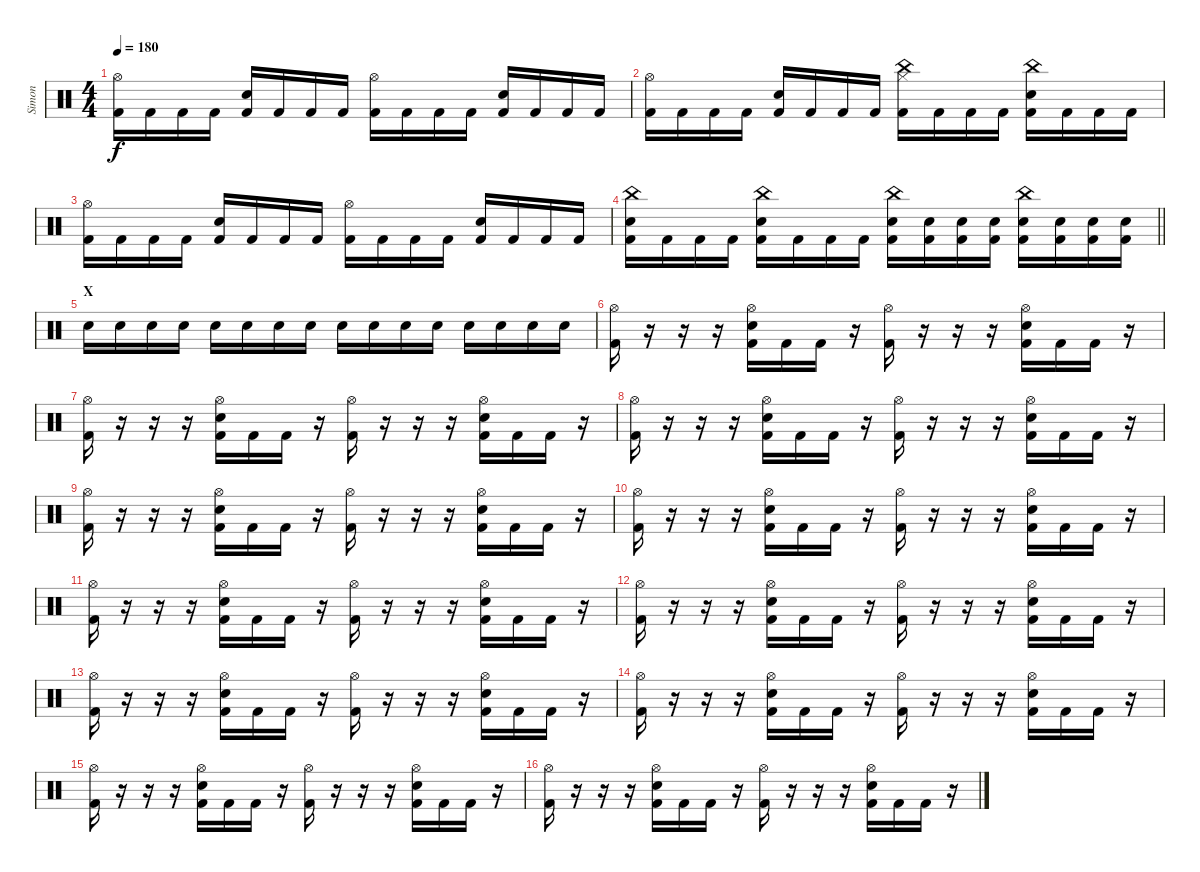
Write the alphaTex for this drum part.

\track ("Simon" "Simon") {instrument percussion}
\staff {score}
\articulation defaults
\ts (4 4)
\tempo 180
\clef neutral
\ks c
("Hi-Hat (open)" "Kick (hit) 2").16{dy f} "Kick (hit) 2".16 "Kick (hit) 2".16 "Kick (hit) 2".16 ("Electric Snare (hit)" "Kick (hit) 2").16 "Kick (hit) 2".16 "Kick (hit) 2".16 "Kick (hit) 2".16 ("Hi-Hat (open)" "Kick (hit) 2").16 "Kick (hit) 2".16 "Kick (hit) 2".16 "Kick (hit) 2".16 ("Electric Snare (hit)" "Kick (hit) 2").16 "Kick (hit) 2".16 "Kick (hit) 2".16 "Kick (hit) 2".16 |
("Hi-Hat (open)" "Kick (hit) 2").16 "Kick (hit) 2".16 "Kick (hit) 2".16 "Kick (hit) 2".16 ("Electric Snare (hit)" "Kick (hit) 2").16 "Kick (hit) 2".16 "Kick (hit) 2".16 "Kick (hit) 2".16 ("China (hit)" "Hi-Hat (closed)" "Kick (hit) 2").16 "Kick (hit) 2".16 "Kick (hit) 2".16 "Kick (hit) 2".16 ("China (hit)" "Electric Snare (hit)" "Kick (hit) 2").16 "Kick (hit) 2".16 "Kick (hit) 2".16 "Kick (hit) 2".16 |
("Hi-Hat (open)" "Kick (hit) 2").16 "Kick (hit) 2".16 "Kick (hit) 2".16 "Kick (hit) 2".16 ("Electric Snare (hit)" "Kick (hit) 2").16 "Kick (hit) 2".16 "Kick (hit) 2".16 "Kick (hit) 2".16 ("Hi-Hat (open)" "Kick (hit) 2").16 "Kick (hit) 2".16 "Kick (hit) 2".16 "Kick (hit) 2".16 ("Electric Snare (hit)" "Kick (hit) 2").16 "Kick (hit) 2".16 "Kick (hit) 2".16 "Kick (hit) 2".16 |
\barLineRight lightlight
("China (hit)" "Electric Snare (hit)" "Kick (hit) 2").16 "Kick (hit) 2".16 "Kick (hit) 2".16 "Kick (hit) 2".16 ("China (hit)" "Electric Snare (hit)" "Kick (hit) 2").16 "Kick (hit) 2".16 "Kick (hit) 2".16 "Kick (hit) 2".16 ("China (hit)" "Electric Snare (hit)" "Kick (hit) 2").16 ("Electric Snare (hit)" "Kick (hit) 2").16 ("Electric Snare (hit)" "Kick (hit) 2").16 ("Electric Snare (hit)" "Kick (hit) 2").16 ("China (hit)" "Electric Snare (hit)" "Kick (hit) 2").16 ("Electric Snare (hit)" "Kick (hit) 2").16 ("Electric Snare (hit)" "Kick (hit) 2").16 ("Electric Snare (hit)" "Kick (hit) 2").16 |
\section ("" "X")
"Electric Snare (hit)".16 "Electric Snare (hit)".16 "Electric Snare (hit)".16 "Electric Snare (hit)".16 "Electric Snare (hit)".16 "Electric Snare (hit)".16 "Electric Snare (hit)".16 "Electric Snare (hit)".16 "Electric Snare (hit)".16 "Electric Snare (hit)".16 "Electric Snare (hit)".16 "Electric Snare (hit)".16 "Electric Snare (hit)".16 "Electric Snare (hit)".16 "Electric Snare (hit)".16 "Electric Snare (hit)".16 |
("Hi-Hat (open)" "Kick (hit) 2").16 r.16 r.16 r.16 ("Hi-Hat (open)" "Electric Snare (hit)" "Kick (hit) 2").16 "Kick (hit) 2".16 "Kick (hit) 2".16 r.16 ("Hi-Hat (open)" "Kick (hit) 2").16 r.16 r.16 r.16 ("Hi-Hat (open)" "Electric Snare (hit)" "Kick (hit) 2").16 "Kick (hit) 2".16 "Kick (hit) 2".16 r.16 |
("Hi-Hat (open)" "Kick (hit) 2").16 r.16 r.16 r.16 ("Hi-Hat (open)" "Electric Snare (hit)" "Kick (hit) 2").16 "Kick (hit) 2".16 "Kick (hit) 2".16 r.16 ("Hi-Hat (open)" "Kick (hit) 2").16 r.16 r.16 r.16 ("Hi-Hat (open)" "Electric Snare (hit)" "Kick (hit) 2").16 "Kick (hit) 2".16 "Kick (hit) 2".16 r.16 |
("Hi-Hat (open)" "Kick (hit) 2").16 r.16 r.16 r.16 ("Hi-Hat (open)" "Electric Snare (hit)" "Kick (hit) 2").16 "Kick (hit) 2".16 "Kick (hit) 2".16 r.16 ("Hi-Hat (open)" "Kick (hit) 2").16 r.16 r.16 r.16 ("Hi-Hat (open)" "Electric Snare (hit)" "Kick (hit) 2").16 "Kick (hit) 2".16 "Kick (hit) 2".16 r.16 |
("Hi-Hat (open)" "Kick (hit) 2").16 r.16 r.16 r.16 ("Hi-Hat (open)" "Electric Snare (hit)" "Kick (hit) 2").16 "Kick (hit) 2".16 "Kick (hit) 2".16 r.16 ("Hi-Hat (open)" "Kick (hit) 2").16 r.16 r.16 r.16 ("Hi-Hat (open)" "Electric Snare (hit)" "Kick (hit) 2").16 "Kick (hit) 2".16 "Kick (hit) 2".16 r.16 |
("Hi-Hat (open)" "Kick (hit) 2").16 r.16 r.16 r.16 ("Hi-Hat (open)" "Electric Snare (hit)" "Kick (hit) 2").16 "Kick (hit) 2".16 "Kick (hit) 2".16 r.16 ("Hi-Hat (open)" "Kick (hit) 2").16 r.16 r.16 r.16 ("Hi-Hat (open)" "Electric Snare (hit)" "Kick (hit) 2").16 "Kick (hit) 2".16 "Kick (hit) 2".16 r.16 |
("Hi-Hat (open)" "Kick (hit) 2").16 r.16 r.16 r.16 ("Hi-Hat (open)" "Electric Snare (hit)" "Kick (hit) 2").16 "Kick (hit) 2".16 "Kick (hit) 2".16 r.16 ("Hi-Hat (open)" "Kick (hit) 2").16 r.16 r.16 r.16 ("Hi-Hat (open)" "Electric Snare (hit)" "Kick (hit) 2").16 "Kick (hit) 2".16 "Kick (hit) 2".16 r.16 |
("Hi-Hat (open)" "Kick (hit) 2").16 r.16 r.16 r.16 ("Hi-Hat (open)" "Electric Snare (hit)" "Kick (hit) 2").16 "Kick (hit) 2".16 "Kick (hit) 2".16 r.16 ("Hi-Hat (open)" "Kick (hit) 2").16 r.16 r.16 r.16 ("Hi-Hat (open)" "Electric Snare (hit)" "Kick (hit) 2").16 "Kick (hit) 2".16 "Kick (hit) 2".16 r.16 |
("Hi-Hat (open)" "Kick (hit) 2").16 r.16 r.16 r.16 ("Hi-Hat (open)" "Electric Snare (hit)" "Kick (hit) 2").16 "Kick (hit) 2".16 "Kick (hit) 2".16 r.16 ("Hi-Hat (open)" "Kick (hit) 2").16 r.16 r.16 r.16 ("Hi-Hat (open)" "Electric Snare (hit)" "Kick (hit) 2").16 "Kick (hit) 2".16 "Kick (hit) 2".16 r.16 |
("Hi-Hat (open)" "Kick (hit) 2").16 r.16 r.16 r.16 ("Hi-Hat (open)" "Electric Snare (hit)" "Kick (hit) 2").16 "Kick (hit) 2".16 "Kick (hit) 2".16 r.16 ("Hi-Hat (open)" "Kick (hit) 2").16 r.16 r.16 r.16 ("Hi-Hat (open)" "Electric Snare (hit)" "Kick (hit) 2").16 "Kick (hit) 2".16 "Kick (hit) 2".16 r.16 |
("Hi-Hat (open)" "Kick (hit) 2").16 r.16 r.16 r.16 ("Hi-Hat (open)" "Electric Snare (hit)" "Kick (hit) 2").16 "Kick (hit) 2".16 "Kick (hit) 2".16 r.16 ("Hi-Hat (open)" "Kick (hit) 2").16 r.16 r.16 r.16 ("Hi-Hat (open)" "Electric Snare (hit)" "Kick (hit) 2").16 "Kick (hit) 2".16 "Kick (hit) 2".16 r.16 |
("Hi-Hat (open)" "Kick (hit) 2").16 r.16 r.16 r.16 ("Hi-Hat (open)" "Electric Snare (hit)" "Kick (hit) 2").16 "Kick (hit) 2".16 "Kick (hit) 2".16 r.16 ("Hi-Hat (open)" "Kick (hit) 2").16 r.16 r.16 r.16 ("Hi-Hat (open)" "Electric Snare (hit)" "Kick (hit) 2").16 "Kick (hit) 2".16 "Kick (hit) 2".16 r.16
